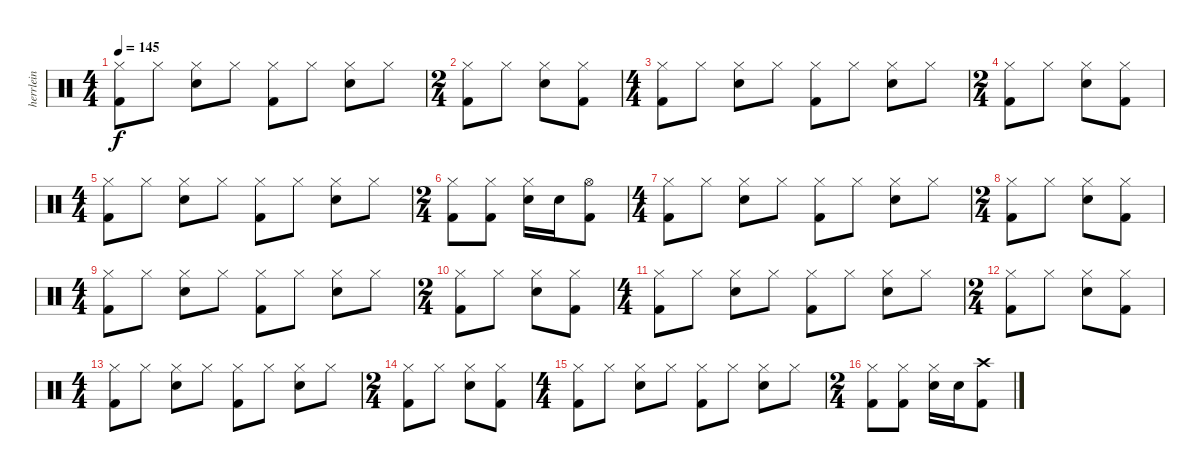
\track ("herrlein" "herrlein") {instrument percussion}
\staff {score}
\articulation defaults
\ts (4 4)
\tempo 145
\clef neutral
\ks c
("Kick (hit) 2" "Hi-Hat (closed)").8{dy f} "Hi-Hat (closed)".8 ("Hi-Hat (closed)" "Snare (hit) 2").8 "Hi-Hat (closed)".8 ("Kick (hit) 2" "Hi-Hat (closed)").8 "Hi-Hat (closed)".8 ("Hi-Hat (closed)" "Snare (hit) 2").8 "Hi-Hat (closed)".8 |
\ts (2 4)
("Kick (hit) 2" "Hi-Hat (closed)").8 "Hi-Hat (closed)".8 ("Hi-Hat (closed)" "Snare (hit) 2").8 ("Kick (hit) 2" "Hi-Hat (closed)").8 |
\ts (4 4)
("Kick (hit) 2" "Hi-Hat (closed)").8 "Hi-Hat (closed)".8 ("Hi-Hat (closed)" "Snare (hit) 2").8 "Hi-Hat (closed)".8 ("Kick (hit) 2" "Hi-Hat (closed)").8 "Hi-Hat (closed)".8 ("Hi-Hat (closed)" "Snare (hit) 2").8 "Hi-Hat (closed)".8 |
\ts (2 4)
("Kick (hit) 2" "Hi-Hat (closed)").8 "Hi-Hat (closed)".8 ("Hi-Hat (closed)" "Snare (hit) 2").8 ("Kick (hit) 2" "Hi-Hat (closed)").8 |
\ts (4 4)
("Kick (hit) 2" "Hi-Hat (closed)").8 "Hi-Hat (closed)".8 ("Hi-Hat (closed)" "Snare (hit) 2").8 "Hi-Hat (closed)".8 ("Kick (hit) 2" "Hi-Hat (closed)").8 "Hi-Hat (closed)".8 ("Hi-Hat (closed)" "Snare (hit) 2").8 "Hi-Hat (closed)".8 |
\ts (2 4)
("Kick (hit) 2" "Hi-Hat (closed)").8 ("Kick (hit) 2" "Hi-Hat (closed)").8 ("Hi-Hat (closed)" "Snare (hit) 2").16 "Snare (hit) 2".16 ("Kick (hit) 2" "Hi-Hat (open)").8 |
\ts (4 4)
("Kick (hit) 2" "Hi-Hat (closed)").8 "Hi-Hat (closed)".8 ("Hi-Hat (closed)" "Snare (hit) 2").8 "Hi-Hat (closed)".8 ("Kick (hit) 2" "Hi-Hat (closed)").8 "Hi-Hat (closed)".8 ("Hi-Hat (closed)" "Snare (hit) 2").8 "Hi-Hat (closed)".8 |
\ts (2 4)
("Kick (hit) 2" "Hi-Hat (closed)").8 "Hi-Hat (closed)".8 ("Hi-Hat (closed)" "Snare (hit) 2").8 ("Kick (hit) 2" "Hi-Hat (closed)").8 |
\ts (4 4)
("Kick (hit) 2" "Hi-Hat (closed)").8 "Hi-Hat (closed)".8 ("Hi-Hat (closed)" "Snare (hit) 2").8 "Hi-Hat (closed)".8 ("Kick (hit) 2" "Hi-Hat (closed)").8 "Hi-Hat (closed)".8 ("Hi-Hat (closed)" "Snare (hit) 2").8 "Hi-Hat (closed)".8 |
\ts (2 4)
("Kick (hit) 2" "Hi-Hat (closed)").8 "Hi-Hat (closed)".8 ("Hi-Hat (closed)" "Snare (hit) 2").8 ("Kick (hit) 2" "Hi-Hat (closed)").8 |
\ts (4 4)
("Kick (hit) 2" "Hi-Hat (closed)").8 "Hi-Hat (closed)".8 ("Hi-Hat (closed)" "Snare (hit) 2").8 "Hi-Hat (closed)".8 ("Kick (hit) 2" "Hi-Hat (closed)").8 "Hi-Hat (closed)".8 ("Hi-Hat (closed)" "Snare (hit) 2").8 "Hi-Hat (closed)".8 |
\ts (2 4)
("Kick (hit) 2" "Hi-Hat (closed)").8 "Hi-Hat (closed)".8 ("Hi-Hat (closed)" "Snare (hit) 2").8 ("Kick (hit) 2" "Hi-Hat (closed)").8 |
\ts (4 4)
("Kick (hit) 2" "Hi-Hat (closed)").8 "Hi-Hat (closed)".8 ("Hi-Hat (closed)" "Snare (hit) 2").8 "Hi-Hat (closed)".8 ("Kick (hit) 2" "Hi-Hat (closed)").8 "Hi-Hat (closed)".8 ("Hi-Hat (closed)" "Snare (hit) 2").8 "Hi-Hat (closed)".8 |
\ts (2 4)
("Kick (hit) 2" "Hi-Hat (closed)").8 "Hi-Hat (closed)".8 ("Hi-Hat (closed)" "Snare (hit) 2").8 ("Kick (hit) 2" "Hi-Hat (closed)").8 |
\ts (4 4)
("Kick (hit) 2" "Hi-Hat (closed)").8 "Hi-Hat (closed)".8 ("Hi-Hat (closed)" "Snare (hit) 2").8 "Hi-Hat (closed)".8 ("Kick (hit) 2" "Hi-Hat (closed)").8 "Hi-Hat (closed)".8 ("Hi-Hat (closed)" "Snare (hit) 2").8 "Hi-Hat (closed)".8 |
\ts (2 4)
("Kick (hit) 2" "Hi-Hat (closed)").8 ("Kick (hit) 2" "Hi-Hat (closed)").8 ("Hi-Hat (closed)" "Snare (hit) 2").16 "Snare (hit) 2".16 ("Kick (hit) 2" "Crash high (hit)").8
